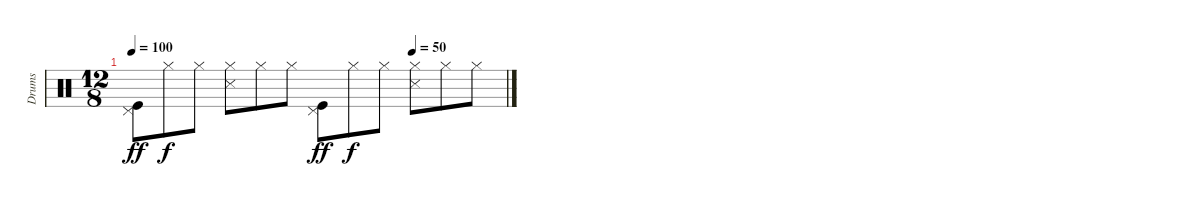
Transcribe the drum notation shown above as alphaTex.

\track ("Drums" "Drums") {instrument percussion}
\staff {score}
\articulation defaults
\ts (12 8)
\tempo 100
\tempo (50 0.75)
\clef neutral
\ks c
("Pedal Hi-Hat (hit)" "Kick (hit)").8{dy ff} "Hi-Hat (closed)".8{dy f} "Hi-Hat (closed)".8 ("Hi-Hat (closed)" "Snare (side stick) 3").8 "Hi-Hat (closed)".8 "Hi-Hat (closed)".8 ("Pedal Hi-Hat (hit)" "Kick (hit)").8{dy ff} "Hi-Hat (closed)".8{dy f} "Hi-Hat (closed)".8 ("Hi-Hat (closed)" "Snare (side stick) 3").8 "Hi-Hat (closed)".8 "Hi-Hat (closed)".8
